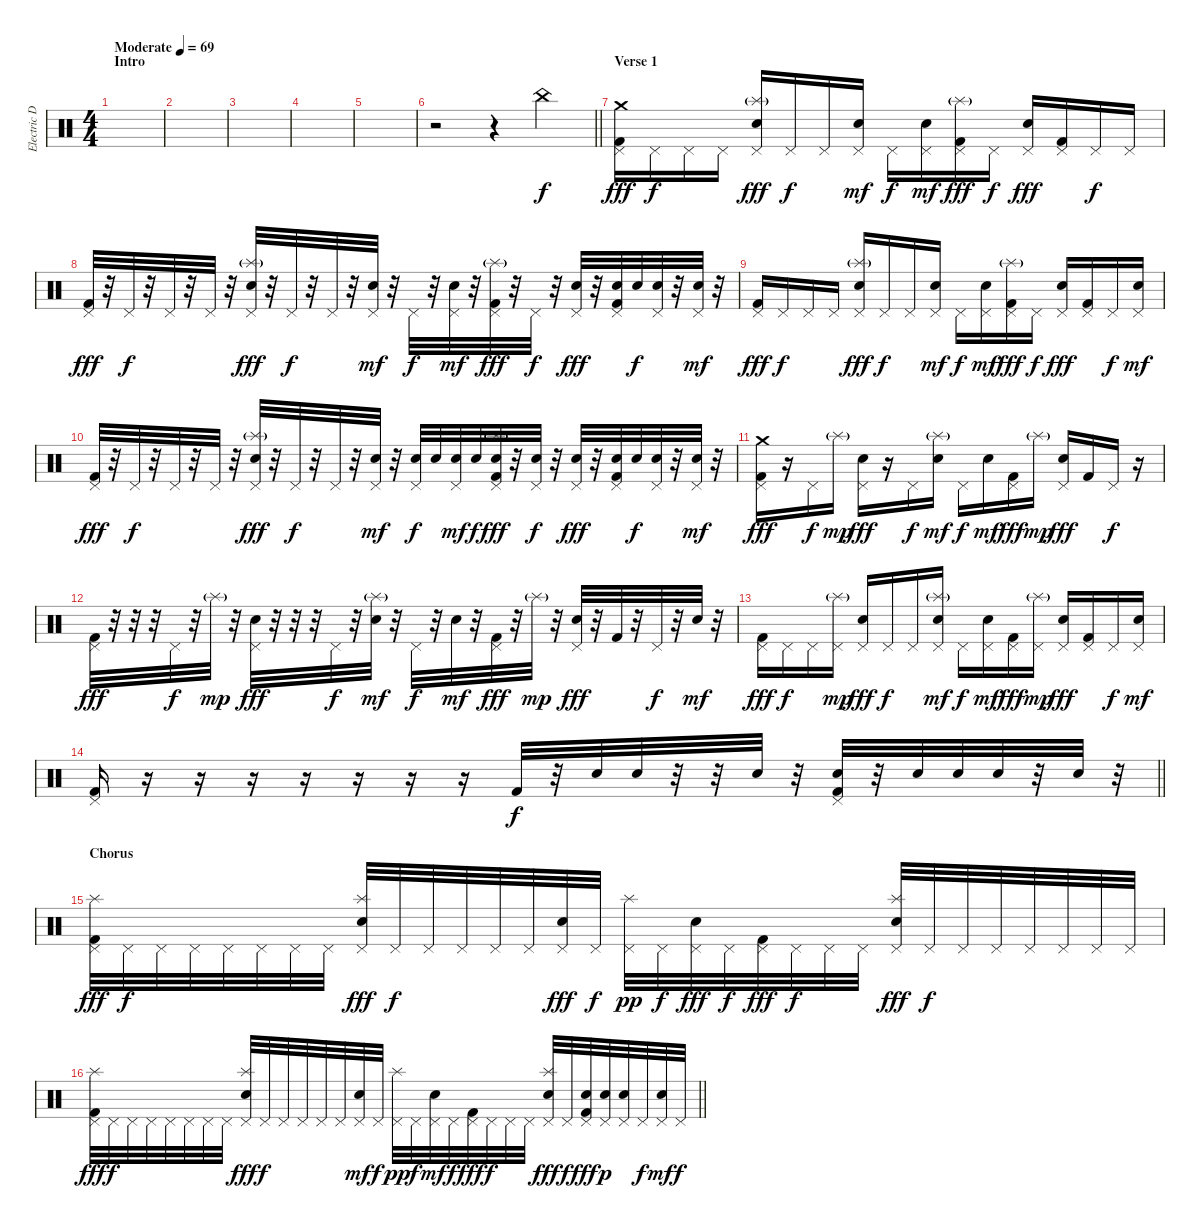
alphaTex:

\track ("Electric Drums" "Electric D") {instrument percussion}
\staff {score}
\articulation defaults
\ts (4 4)
\section ("" "Intro")
\tempo (69 "Moderate")
\clef neutral
\ks aminor
|
|
|
|
|
\barLineRight lightlight
r.2 r.4 "China (hit)".4 |
\section ("" "Verse 1")
("Crash medium (hit)" "Pedal Hi-Hat (hit)" "Kick (hit) 2").16{dy fff} "Pedal Hi-Hat (hit)".16{dy f} "Pedal Hi-Hat (hit)".16 "Pedal Hi-Hat (hit)".16 ("Splash (hit)"{g} "Pedal Hi-Hat (hit)" "Hand Clap (hit)").16{dy fff} "Pedal Hi-Hat (hit)".16{dy f} "Pedal Hi-Hat (hit)".16 ("Pedal Hi-Hat (hit)" "Snare (hit) 2").16{dy mf} "Pedal Hi-Hat (hit)".16{dy f} ("Pedal Hi-Hat (hit)" "Snare (hit) 2").16{dy mf} ("Splash (hit)"{g} "Pedal Hi-Hat (hit)" "Kick (hit) 2").16{dy fff} "Pedal Hi-Hat (hit)".16{dy f} ("Pedal Hi-Hat (hit)" "Hand Clap (hit)").16{dy fff} ("Pedal Hi-Hat (hit)" "Kick (hit) 2").16 "Pedal Hi-Hat (hit)".16{dy f} "Pedal Hi-Hat (hit)".16 |
("Pedal Hi-Hat (hit)" "Kick (hit) 2").32{dy fff} r.32 "Pedal Hi-Hat (hit)".32{dy f} r.32 "Pedal Hi-Hat (hit)".32 r.32 "Pedal Hi-Hat (hit)".32 r.32 ("Splash (hit)"{g} "Pedal Hi-Hat (hit)" "Hand Clap (hit)").32{dy fff} r.32 "Pedal Hi-Hat (hit)".32{dy f} r.32 "Pedal Hi-Hat (hit)".32 r.32 ("Pedal Hi-Hat (hit)" "Snare (hit) 2").32{dy mf} r.32 "Pedal Hi-Hat (hit)".32{dy f} r.32 ("Pedal Hi-Hat (hit)" "Snare (hit) 2").32{dy mf} r.32 ("Splash (hit)"{g} "Pedal Hi-Hat (hit)" "Kick (hit) 2").32{dy fff} r.32 "Pedal Hi-Hat (hit)".32{dy f} r.32 ("Pedal Hi-Hat (hit)" "Hand Clap (hit)").32{dy fff} r.32 ("Pedal Hi-Hat (hit)" "Snare (hit) 2" "Kick (hit) 2").32 "Snare (hit) 2".32{dy f} ("Pedal Hi-Hat (hit)" "Snare (hit) 2").32 r.32 ("Pedal Hi-Hat (hit)" "Snare (hit) 2").32{dy mf} r.32 |
("Pedal Hi-Hat (hit)" "Kick (hit) 2").16{dy fff} "Pedal Hi-Hat (hit)".16{dy f} "Pedal Hi-Hat (hit)".16 "Pedal Hi-Hat (hit)".16 ("Splash (hit)"{g} "Pedal Hi-Hat (hit)" "Hand Clap (hit)").16{dy fff} "Pedal Hi-Hat (hit)".16{dy f} "Pedal Hi-Hat (hit)".16 ("Pedal Hi-Hat (hit)" "Snare (hit) 2").16{dy mf} "Pedal Hi-Hat (hit)".16{dy f} ("Pedal Hi-Hat (hit)" "Snare (hit) 2").16{dy mf} ("Splash (hit)"{g} "Pedal Hi-Hat (hit)" "Kick (hit) 2").16{dy fff} "Pedal Hi-Hat (hit)".16{dy f} ("Pedal Hi-Hat (hit)" "Hand Clap (hit)").16{dy fff} ("Pedal Hi-Hat (hit)" "Kick (hit) 2").16 "Pedal Hi-Hat (hit)".16{dy f} ("Pedal Hi-Hat (hit)" "Snare (hit) 2").16{dy mf} |
("Pedal Hi-Hat (hit)" "Kick (hit) 2").32{dy fff} r.32 "Pedal Hi-Hat (hit)".32{dy f} r.32 "Pedal Hi-Hat (hit)".32 r.32 "Pedal Hi-Hat (hit)".32 r.32 ("Splash (hit)"{g} "Pedal Hi-Hat (hit)" "Hand Clap (hit)").32{dy fff} r.32 "Pedal Hi-Hat (hit)".32{dy f} r.32 "Pedal Hi-Hat (hit)".32 r.32 ("Pedal Hi-Hat (hit)" "Snare (hit) 2").32{dy mf} r.32 ("Pedal Hi-Hat (hit)" "Snare (hit) 2").32{dy f} "Snare (hit) 2".32 ("Pedal Hi-Hat (hit)" "Snare (hit) 2").32{dy mf} "Snare (hit) 2".32{dy f} ("Splash (hit)"{g} "Pedal Hi-Hat (hit)" "Snare (hit) 2" "Kick (hit) 2").32{dy fff} r.32 ("Pedal Hi-Hat (hit)" "Snare (hit) 2").32{dy f} r.32 ("Pedal Hi-Hat (hit)" "Hand Clap (hit)").32{dy fff} r.32 ("Pedal Hi-Hat (hit)" "Snare (hit) 2" "Kick (hit) 2").32 "Snare (hit) 2".32{dy f} ("Pedal Hi-Hat (hit)" "Snare (hit) 2").32 r.32 ("Pedal Hi-Hat (hit)" "Snare (hit) 2").32{dy mf} r.32 |
("Crash medium (hit)" "Pedal Hi-Hat (hit)" "Kick (hit) 2").16{dy fff} r.16 "Pedal Hi-Hat (hit)".16{dy f} "Splash (hit)"{g}.16{dy mp} ("Pedal Hi-Hat (hit)" "Hand Clap (hit)").16{dy fff} r.16 "Pedal Hi-Hat (hit)".16{dy f} ("Splash (hit)"{g} "Snare (hit) 2").16{dy mf} "Pedal Hi-Hat (hit)".16{dy f} "Snare (hit) 2".16{dy mf} ("Pedal Hi-Hat (hit)" "Kick (hit) 2").16{dy fff} "Splash (hit)"{g}.16{dy mp} ("Pedal Hi-Hat (hit)" "Hand Clap (hit)").16{dy fff} "Kick (hit) 2".16 "Pedal Hi-Hat (hit)".16{dy f} r.16 |
("Pedal Hi-Hat (hit)" "Kick (hit) 2").32{dy fff} r.32 r.32 r.32 "Pedal Hi-Hat (hit)".32{dy f} r.32 "Splash (hit)"{g}.32{dy mp} r.32 ("Pedal Hi-Hat (hit)" "Hand Clap (hit)").32{dy fff} r.32 r.32 r.32 "Pedal Hi-Hat (hit)".32{dy f} r.32 ("Splash (hit)"{g} "Snare (hit) 2").32{dy mf} r.32 "Pedal Hi-Hat (hit)".32{dy f} r.32 "Snare (hit) 2".32{dy mf} r.32 ("Pedal Hi-Hat (hit)" "Kick (hit) 2").32{dy fff} r.32 "Splash (hit)"{g}.32{dy mp} r.32 ("Pedal Hi-Hat (hit)" "Hand Clap (hit)").32{dy fff} r.32 "Kick (hit) 2".32 r.32 "Pedal Hi-Hat (hit)".32{dy f} r.32 "Snare (hit) 2".32{dy mf} r.32 |
("Pedal Hi-Hat (hit)" "Kick (hit) 2").16{dy fff} "Pedal Hi-Hat (hit)".16{dy f} "Pedal Hi-Hat (hit)".16 ("Splash (hit)"{g} "Pedal Hi-Hat (hit)").16{dy mp} ("Pedal Hi-Hat (hit)" "Hand Clap (hit)").16{dy fff} "Pedal Hi-Hat (hit)".16{dy f} "Pedal Hi-Hat (hit)".16 ("Splash (hit)"{g} "Pedal Hi-Hat (hit)" "Snare (hit) 2").16{dy mf} "Pedal Hi-Hat (hit)".16{dy f} ("Pedal Hi-Hat (hit)" "Snare (hit) 2").16{dy mf} ("Pedal Hi-Hat (hit)" "Kick (hit) 2").16{dy fff} ("Splash (hit)"{g} "Pedal Hi-Hat (hit)").16{dy mp} ("Pedal Hi-Hat (hit)" "Hand Clap (hit)").16{dy fff} ("Pedal Hi-Hat (hit)" "Kick (hit) 2").16 "Pedal Hi-Hat (hit)".16{dy f} ("Pedal Hi-Hat (hit)" "Snare (hit) 2").16{dy mf} |
\barLineRight lightlight
("Pedal Hi-Hat (hit)" "Kick (hit) 2").16 r.16 r.16 r.16 r.16 r.16 r.16 r.16 "Kick (hit) 2".32{dy f} r.32 "Snare (hit) 2".32 "Snare (hit) 2".32 r.32 r.32 "Snare (hit) 2".32 r.32 ("Pedal Hi-Hat (hit)" "Hand Clap (hit)" "Kick (hit) 2").32 r.32 "Snare (hit) 2".32 "Snare (hit) 2".32 "Snare (hit) 2".32 r.32 "Snare (hit) 2".32 r.32 |
\section ("" "Chorus")
("Splash (hit)" "Pedal Hi-Hat (hit)" "Kick (hit) 2").32{dy fff} "Pedal Hi-Hat (hit)".32{dy f} "Pedal Hi-Hat (hit)".32 "Pedal Hi-Hat (hit)".32 "Pedal Hi-Hat (hit)".32 "Pedal Hi-Hat (hit)".32 "Pedal Hi-Hat (hit)".32 "Pedal Hi-Hat (hit)".32 ("Splash (hit)" "Pedal Hi-Hat (hit)" "Hand Clap (hit)").32{dy fff} "Pedal Hi-Hat (hit)".32{dy f} "Pedal Hi-Hat (hit)".32 "Pedal Hi-Hat (hit)".32 "Pedal Hi-Hat (hit)".32 "Pedal Hi-Hat (hit)".32 ("Pedal Hi-Hat (hit)" "Snare (hit) 2").32{dy fff} "Pedal Hi-Hat (hit)".32{dy f} ("Splash (hit)" "Pedal Hi-Hat (hit)").32{dy pp} "Pedal Hi-Hat (hit)".32{dy f} ("Pedal Hi-Hat (hit)" "Snare (hit) 2").32{dy fff} "Pedal Hi-Hat (hit)".32{dy f} ("Pedal Hi-Hat (hit)" "Kick (hit) 2").32{dy fff} "Pedal Hi-Hat (hit)".32{dy f} "Pedal Hi-Hat (hit)".32 "Pedal Hi-Hat (hit)".32 ("Splash (hit)" "Pedal Hi-Hat (hit)" "Hand Clap (hit)").32{dy fff} "Pedal Hi-Hat (hit)".32{dy f} "Pedal Hi-Hat (hit)".32 "Pedal Hi-Hat (hit)".32 "Pedal Hi-Hat (hit)".32 "Pedal Hi-Hat (hit)".32 "Pedal Hi-Hat (hit)".32 "Pedal Hi-Hat (hit)".32 |
\barLineRight lightlight
("Splash (hit)" "Pedal Hi-Hat (hit)" "Kick (hit) 2").32{dy fff} "Pedal Hi-Hat (hit)".32{dy f} "Pedal Hi-Hat (hit)".32 "Pedal Hi-Hat (hit)".32 "Pedal Hi-Hat (hit)".32 "Pedal Hi-Hat (hit)".32 "Pedal Hi-Hat (hit)".32 "Pedal Hi-Hat (hit)".32 ("Splash (hit)" "Pedal Hi-Hat (hit)" "Hand Clap (hit)").32{dy fff} "Pedal Hi-Hat (hit)".32{dy f} "Pedal Hi-Hat (hit)".32 "Pedal Hi-Hat (hit)".32 "Pedal Hi-Hat (hit)".32 "Pedal Hi-Hat (hit)".32 ("Pedal Hi-Hat (hit)" "Snare (hit) 2").32{dy mf} "Pedal Hi-Hat (hit)".32{dy f} ("Splash (hit)" "Pedal Hi-Hat (hit)").32{dy pp} "Pedal Hi-Hat (hit)".32{dy f} ("Pedal Hi-Hat (hit)" "Snare (hit) 2").32{dy mf} "Pedal Hi-Hat (hit)".32{dy f} ("Pedal Hi-Hat (hit)" "Kick (hit) 2").32{dy fff} "Pedal Hi-Hat (hit)".32{dy f} "Pedal Hi-Hat (hit)".32 "Pedal Hi-Hat (hit)".32 ("Splash (hit)" "Pedal Hi-Hat (hit)" "Hand Clap (hit)").32{dy fff} "Pedal Hi-Hat (hit)".32{dy f} ("Pedal Hi-Hat (hit)" "Snare (hit) 2" "Kick (hit) 2").32{dy fff} ("Pedal Hi-Hat (hit)" "Snare (hit) 2").32{dy p} ("Pedal Hi-Hat (hit)" "Snare (hit) 2").32 "Pedal Hi-Hat (hit)".32{dy f} ("Pedal Hi-Hat (hit)" "Snare (hit) 2").32{dy mf} "Pedal Hi-Hat (hit)".32{dy f}
